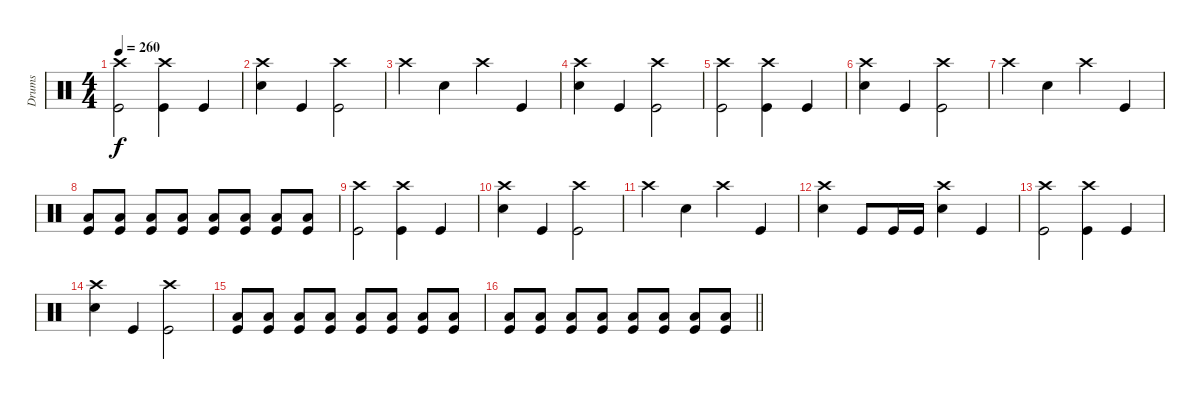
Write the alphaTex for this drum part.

\track ("Drums" "Drums") {instrument percussion}
\staff {score}
\articulation defaults
\ts (4 4)
\tempo 260
\clef neutral
\ks c
("Kick (hit)" "Crash high (hit)").2{dy f} ("Kick (hit)" "Crash high (hit)").4 "Kick (hit)".4 |
("Snare (hit) 2" "Crash high (hit)").4 "Kick (hit)".4 ("Kick (hit)" "Crash high (hit)").2 |
"Crash high (hit)".4 "Snare (hit) 2".4 "Crash high (hit)".4 "Kick (hit)".4 |
("Snare (hit) 2" "Crash high (hit)").4 "Kick (hit)".4 ("Kick (hit)" "Crash high (hit)").2 |
("Kick (hit)" "Crash high (hit)").2 ("Kick (hit)" "Crash high (hit)").4 "Kick (hit)".4 |
("Snare (hit) 2" "Crash high (hit)").4 "Kick (hit)".4 ("Kick (hit)" "Crash high (hit)").2 |
"Crash high (hit)".4 "Snare (hit) 2".4 "Crash high (hit)".4 "Kick (hit)".4 |
("Kick (hit)" "Low Floor Tom (hit)").8 ("Kick (hit)" "Low Floor Tom (hit)").8 ("Kick (hit)" "Low Floor Tom (hit)").8 ("Kick (hit)" "Low Floor Tom (hit)").8 ("Kick (hit)" "Low Floor Tom (hit)").8 ("Kick (hit)" "Low Floor Tom (hit)").8 ("Kick (hit)" "Low Floor Tom (hit)").8 ("Kick (hit)" "Low Floor Tom (hit)").8 |
("Kick (hit)" "Crash high (hit)").2 ("Kick (hit)" "Crash high (hit)").4 "Kick (hit)".4 |
("Snare (hit) 2" "Crash high (hit)").4 "Kick (hit)".4 ("Kick (hit)" "Crash high (hit)").2 |
"Crash high (hit)".4 "Snare (hit) 2".4 "Crash high (hit)".4 "Kick (hit)".4 |
("Snare (hit) 2" "Crash high (hit)").4 "Kick (hit)".8 "Kick (hit)".16 "Kick (hit)".16 ("Crash high (hit)" "Snare (hit) 2").4 "Kick (hit)".4 |
("Kick (hit)" "Crash high (hit)").2 ("Kick (hit)" "Crash high (hit)").4 "Kick (hit)".4 |
("Snare (hit) 2" "Crash high (hit)").4 "Kick (hit)".4 ("Kick (hit)" "Crash high (hit)").2 |
("Kick (hit)" "Low Floor Tom (hit)").8 ("Kick (hit)" "Low Floor Tom (hit)").8 ("Kick (hit)" "Low Floor Tom (hit)").8 ("Kick (hit)" "Low Floor Tom (hit)").8 ("Kick (hit)" "Low Floor Tom (hit)").8 ("Kick (hit)" "Low Floor Tom (hit)").8 ("Kick (hit)" "Low Floor Tom (hit)").8 ("Kick (hit)" "Low Floor Tom (hit)").8 |
\barLineRight lightlight
("Kick (hit)" "Low Floor Tom (hit)").8 ("Kick (hit)" "Low Floor Tom (hit)").8 ("Kick (hit)" "Low Floor Tom (hit)").8 ("Kick (hit)" "Low Floor Tom (hit)").8 ("Kick (hit)" "Low Floor Tom (hit)").8 ("Kick (hit)" "Low Floor Tom (hit)").8 ("Kick (hit)" "Low Floor Tom (hit)").8 ("Kick (hit)" "Low Floor Tom (hit)").8
